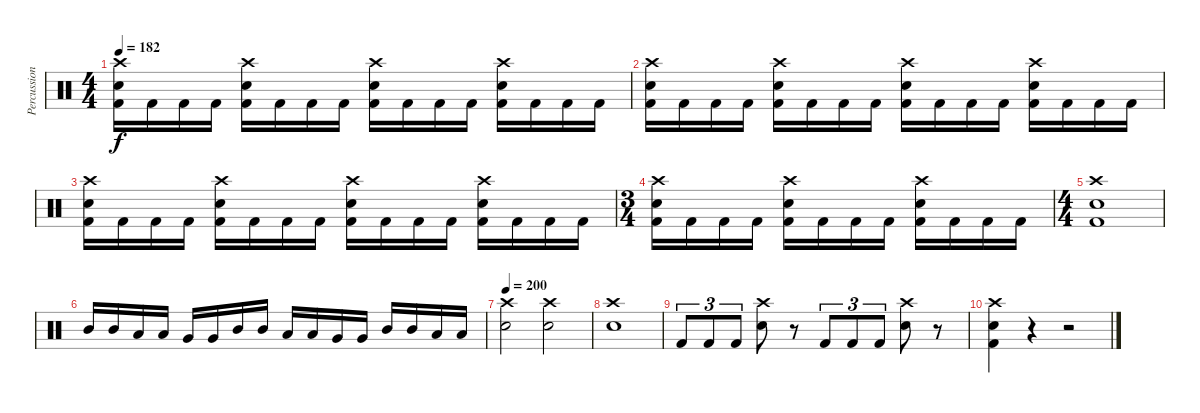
\track ("Percussion" "Percussion") {instrument percussion}
\staff {score}
\articulation defaults
\ts (4 4)
\tempo 182
\clef neutral
\ks c
("Crash high (hit)" "Snare (hit) 2" "Kick (hit) 2").16{dy f} "Kick (hit) 2".16 "Kick (hit) 2".16 "Kick (hit) 2".16 ("Crash high (hit)" "Snare (hit) 2" "Kick (hit) 2").16 "Kick (hit) 2".16 "Kick (hit) 2".16 "Kick (hit) 2".16 ("Crash high (hit)" "Snare (hit) 2" "Kick (hit) 2").16 "Kick (hit) 2".16 "Kick (hit) 2".16 "Kick (hit) 2".16 ("Crash high (hit)" "Snare (hit) 2" "Kick (hit) 2").16 "Kick (hit) 2".16 "Kick (hit) 2".16 "Kick (hit) 2".16 |
("Crash high (hit)" "Snare (hit) 2" "Kick (hit) 2").16 "Kick (hit) 2".16 "Kick (hit) 2".16 "Kick (hit) 2".16 ("Crash high (hit)" "Snare (hit) 2" "Kick (hit) 2").16 "Kick (hit) 2".16 "Kick (hit) 2".16 "Kick (hit) 2".16 ("Crash high (hit)" "Snare (hit) 2" "Kick (hit) 2").16 "Kick (hit) 2".16 "Kick (hit) 2".16 "Kick (hit) 2".16 ("Crash high (hit)" "Snare (hit) 2" "Kick (hit) 2").16 "Kick (hit) 2".16 "Kick (hit) 2".16 "Kick (hit) 2".16 |
("Crash high (hit)" "Snare (hit) 2" "Kick (hit) 2").16 "Kick (hit) 2".16 "Kick (hit) 2".16 "Kick (hit) 2".16 ("Crash high (hit)" "Snare (hit) 2" "Kick (hit) 2").16 "Kick (hit) 2".16 "Kick (hit) 2".16 "Kick (hit) 2".16 ("Crash high (hit)" "Snare (hit) 2" "Kick (hit) 2").16 "Kick (hit) 2".16 "Kick (hit) 2".16 "Kick (hit) 2".16 ("Crash high (hit)" "Snare (hit) 2" "Kick (hit) 2").16 "Kick (hit) 2".16 "Kick (hit) 2".16 "Kick (hit) 2".16 |
\ts (3 4)
("Crash high (hit)" "Snare (hit) 2" "Kick (hit) 2").16 "Kick (hit) 2".16 "Kick (hit) 2".16 "Kick (hit) 2".16 ("Crash high (hit)" "Snare (hit) 2" "Kick (hit) 2").16 "Kick (hit) 2".16 "Kick (hit) 2".16 "Kick (hit) 2".16 ("Crash high (hit)" "Snare (hit) 2" "Kick (hit) 2").16 "Kick (hit) 2".16 "Kick (hit) 2".16 "Kick (hit) 2".16 |
\ts (4 4)
("Crash high (hit)" "Snare (hit) 2" "Kick (hit) 2").1 |
"Mid Tom (hit)".16 "Mid Tom (hit)".16 "Low Tom (hit)".16 "Low Tom (hit)".16 "Very Low Tom (hit)".16 "Very Low Tom (hit)".16 "Mid Tom (hit)".16 "Mid Tom (hit)".16 "Low Tom (hit)".16 "Low Tom (hit)".16 "Very Low Tom (hit)".16 "Very Low Tom (hit)".16 "Mid Tom (hit)".16 "Mid Tom (hit)".16 "Low Tom (hit)".16 "Low Tom (hit)".16 |
\tempo 200
("Crash high (hit)" "Snare (hit) 2").2 ("Crash high (hit)" "Snare (hit) 2").2 |
("Crash high (hit)" "Snare (hit) 2").1 |
"Kick (hit) 2".8{tu (3 2)} "Kick (hit) 2".8{tu (3 2)} "Kick (hit) 2".8{tu (3 2)} ("Crash high (hit)" "Snare (hit) 2").8 r.8 "Kick (hit) 2".8{tu (3 2)} "Kick (hit) 2".8{tu (3 2)} "Kick (hit) 2".8{tu (3 2)} ("Crash high (hit)" "Snare (hit) 2").8 r.8 |
("Crash high (hit)" "Snare (hit) 2" "Kick (hit) 2").4 r.4 r.2
